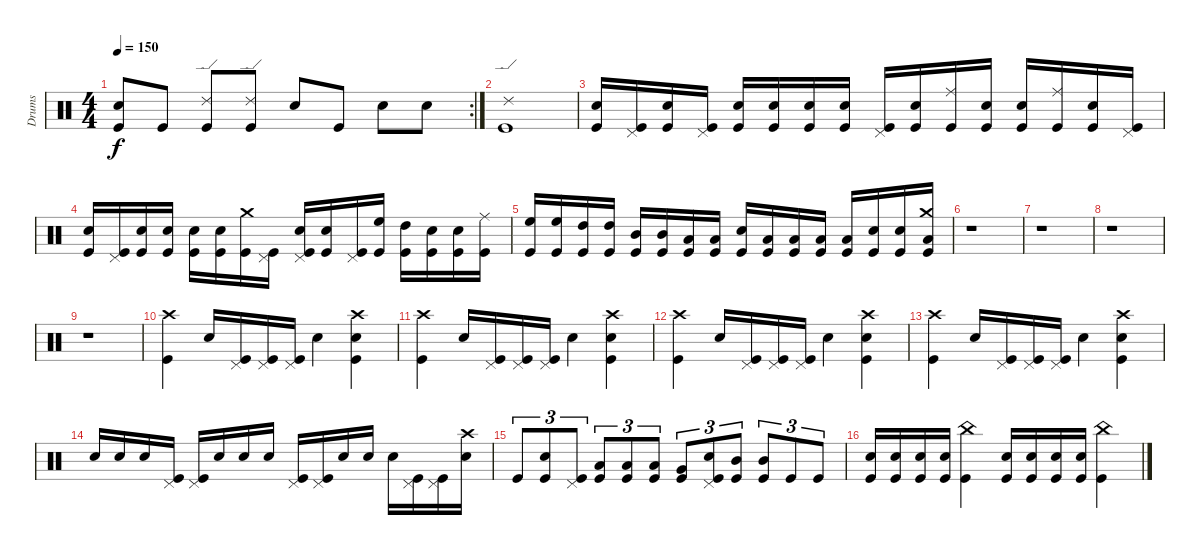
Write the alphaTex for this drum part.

\track ("Drums" "Drums") {instrument percussion}
\staff {score}
\articulation defaults
\rc 2
\ts (4 4)
\tempo 150
\clef neutral
\ks c
("Kick (hit)" "Snare (hit) 2").8{dy f} "Kick (hit)".8 ("Kick (hit)" "Ride (edge) 2").8 ("Kick (hit)" "Ride (edge) 2").8 "Snare (hit) 2".8 "Kick (hit)".8 "Snare (hit) 2".8 "Snare (hit) 2".8 |
("Kick (hit)" "Ride (edge) 2").1 |
("Kick (hit)" "Snare (hit) 2").16 ("Kick (hit)" "Pedal Hi-Hat (hit)").16 ("Kick (hit)" "Snare (hit) 2").16 ("Kick (hit)" "Pedal Hi-Hat (hit)").16 ("Kick (hit)" "Snare (hit) 2").16 ("Kick (hit)" "Snare (hit) 2").16 ("Kick (hit)" "Snare (hit) 2").16 ("Kick (hit)" "Snare (hit) 2").16 ("Kick (hit)" "Pedal Hi-Hat (hit)").16 ("Kick (hit)" "Snare (hit) 2").16 ("Kick (hit)" "Ride (middle)").16 ("Kick (hit)" "Snare (hit) 2").16 ("Kick (hit)" "Snare (hit) 2").16 ("Kick (hit)" "Ride (middle)").16 ("Kick (hit)" "Snare (hit) 2").16 ("Kick (hit)" "Pedal Hi-Hat (hit)").16 |
("Kick (hit)" "Snare (hit) 2").16 ("Kick (hit)" "Pedal Hi-Hat (hit)").16 ("Kick (hit)" "Snare (hit) 2").16 ("Kick (hit)" "Snare (hit) 2").16 ("Kick (hit)" "Snare (hit) 2").16 ("Kick (hit)" "Snare (hit) 2").16 ("Kick (hit)" "Crash medium (hit)").16 ("Kick (hit)" "Pedal Hi-Hat (hit)").16 ("Kick (hit)" "Snare (hit) 2" "Pedal Hi-Hat (hit)").16 ("Kick (hit)" "Snare (hit) 2").16 ("Kick (hit)" "Pedal Hi-Hat (hit)").16 ("Kick (hit)" "High Floor Tom (hit)").16 ("Kick (hit)" "High Tom (hit)").16 ("Kick (hit)" "Snare (hit) 2").16 ("Kick (hit)" "Snare (hit) 2").16 ("Kick (hit)" "Ride (middle)").16 |
("Kick (hit)" "High Floor Tom (hit)").16 ("Kick (hit)" "High Floor Tom (hit)").16 ("Kick (hit)" "High Tom (hit)").16 ("Kick (hit)" "High Tom (hit)").16 ("Kick (hit)" "Mid Tom (hit)").16 ("Kick (hit)" "Mid Tom (hit)").16 ("Kick (hit)" "Low Tom (hit)").16 ("Kick (hit)" "Low Tom (hit)").16 ("Kick (hit)" "Snare (hit) 2").16 ("Kick (hit)" "Low Floor Tom (hit)").16 ("Kick (hit)" "Low Floor Tom (hit)").16 ("Kick (hit)" "Low Floor Tom (hit)").16 ("Kick (hit)" "Low Floor Tom (hit)").16 ("Kick (hit)" "Snare (hit) 2").16 ("Kick (hit)" "Snare (hit) 2").16 ("Kick (hit)" "Low Floor Tom (hit)" "Crash medium (hit)").16 |
r.1 |
r.1 |
r.1 |
r.1 |
("Kick (hit)" "Crash high (hit)").4 "Snare (hit) 2".16 ("Kick (hit)" "Pedal Hi-Hat (hit)").16 ("Kick (hit)" "Pedal Hi-Hat (hit)").16 ("Kick (hit)" "Pedal Hi-Hat (hit)").16 "Snare (hit) 2".4 ("Kick (hit)" "Snare (hit) 2" "Crash high (hit)").4 |
("Kick (hit)" "Crash high (hit)").4 "Snare (hit) 2".16 ("Kick (hit)" "Pedal Hi-Hat (hit)").16 ("Kick (hit)" "Pedal Hi-Hat (hit)").16 ("Kick (hit)" "Pedal Hi-Hat (hit)").16 "Snare (hit) 2".4 ("Kick (hit)" "Snare (hit) 2" "Crash high (hit)").4 |
("Kick (hit)" "Crash high (hit)").4 "Snare (hit) 2".16 ("Kick (hit)" "Pedal Hi-Hat (hit)").16 ("Kick (hit)" "Pedal Hi-Hat (hit)").16 ("Kick (hit)" "Pedal Hi-Hat (hit)").16 "Snare (hit) 2".4 ("Kick (hit)" "Snare (hit) 2" "Crash high (hit)").4 |
("Kick (hit)" "Crash high (hit)").4 "Snare (hit) 2".16 ("Kick (hit)" "Pedal Hi-Hat (hit)").16 ("Kick (hit)" "Pedal Hi-Hat (hit)").16 ("Kick (hit)" "Pedal Hi-Hat (hit)").16 "Snare (hit) 2".4 ("Kick (hit)" "Snare (hit) 2" "Crash high (hit)").4 |
"Snare (hit) 2".16 "Snare (hit) 2".16 "Snare (hit) 2".16 ("Kick (hit)" "Pedal Hi-Hat (hit)").16 ("Kick (hit)" "Pedal Hi-Hat (hit)").16 "Snare (hit) 2".16 "Snare (hit) 2".16 "Snare (hit) 2".16 ("Kick (hit)" "Pedal Hi-Hat (hit)").16 ("Kick (hit)" "Pedal Hi-Hat (hit)").16 "Snare (hit) 2".16 "Snare (hit) 2".16 "Snare (hit) 2".16 ("Kick (hit)" "Pedal Hi-Hat (hit)").16 ("Kick (hit)" "Pedal Hi-Hat (hit)").16 ("Snare (hit) 2" "Crash high (hit)").16 |
"Kick (hit)".8{tu (3 2)} ("Kick (hit)" "Snare (hit) 2").8{tu (3 2)} ("Kick (hit)" "Pedal Hi-Hat (hit)").8{tu (3 2)} ("Kick (hit)" "Low Floor Tom (hit)").8{tu (3 2)} ("Kick (hit)" "Low Tom (hit)").8{tu (3 2)} ("Kick (hit)" "Low Tom (hit)").8{tu (3 2)} ("Kick (hit)" "Very Low Tom (hit)").8{tu (3 2)} ("Kick (hit)" "Snare (hit) 2" "Pedal Hi-Hat (hit)").8{tu (3 2)} ("Kick (hit)" "Mid Tom (hit)").8{tu (3 2)} ("Kick (hit)" "Mid Tom (hit)").8{tu (3 2)} "Kick (hit)".8{tu (3 2)} "Kick (hit)".8{tu (3 2)} |
("Kick (hit)" "Snare (hit) 2").16 ("Kick (hit)" "Snare (hit) 2").16 ("Kick (hit)" "Snare (hit) 2").16 ("Kick (hit)" "Snare (hit) 2").16 ("Kick (hit)" "China (hit)").4 ("Kick (hit)" "Snare (hit) 2").16 ("Kick (hit)" "Snare (hit) 2").16 ("Kick (hit)" "Snare (hit) 2").16 ("Kick (hit)" "Snare (hit) 2").16 ("Kick (hit)" "China (hit)").4
